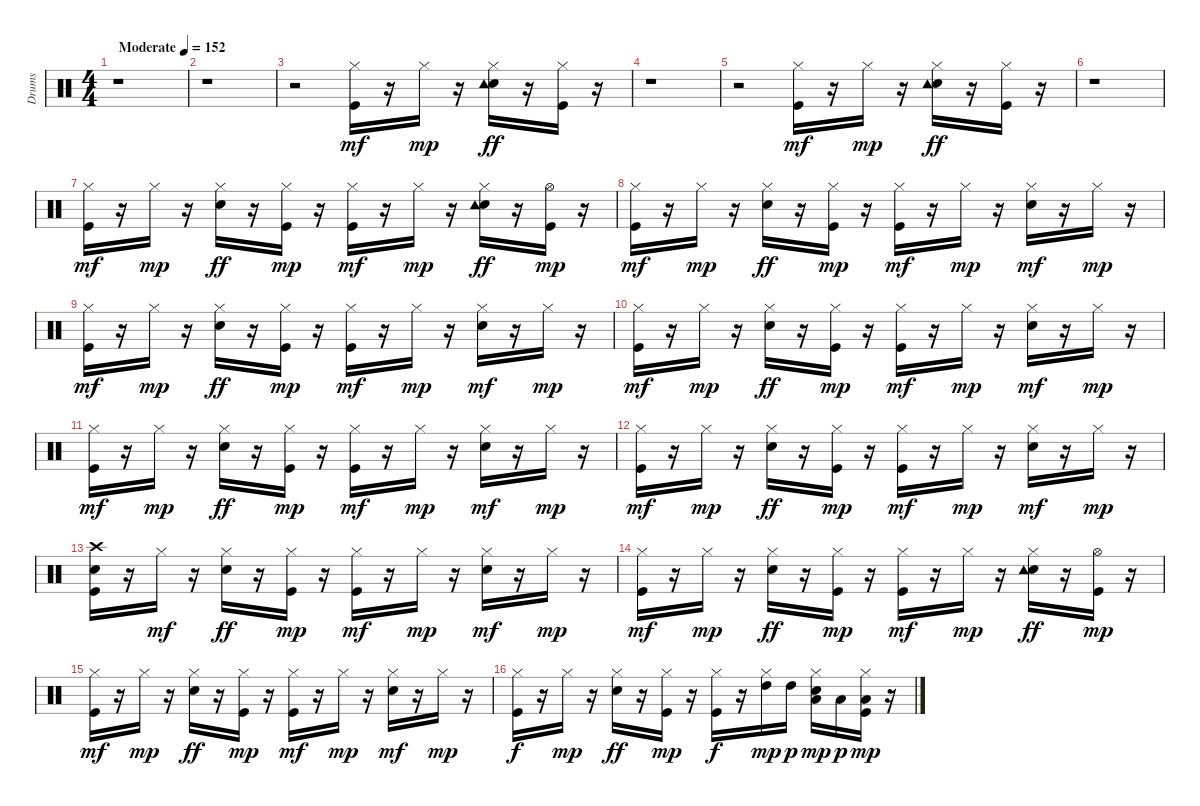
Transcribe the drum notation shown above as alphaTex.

\track ("Drums   " "Drums   ") {instrument percussion}
\staff {score}
\articulation defaults
\ts (4 4)
\tempo (152 "Moderate")
\clef neutral
\ks c
r.1{dy mf} |
r.1 |
r.2 ("Kick (hit)" "Hi-Hat (closed)").16 r.16 "Hi-Hat (closed)".16{dy mp} r.16 ("Snare (hit) 2" "Hi-Hat (closed)" "Tambourine (hit)").16{dy ff} r.16 ("Kick (hit)" "Hi-Hat (closed)").16 r.16 |
r.1 |
r.2 ("Kick (hit)" "Hi-Hat (closed)").16{dy mf} r.16 "Hi-Hat (closed)".16{dy mp} r.16 ("Snare (hit) 2" "Hi-Hat (closed)" "Tambourine (hit)").16{dy ff} r.16 ("Kick (hit)" "Hi-Hat (closed)").16 r.16 |
r.1 |
("Kick (hit)" "Hi-Hat (closed)").16{dy mf} r.16 "Hi-Hat (closed)".16{dy mp} r.16 ("Snare (hit) 2" "Hi-Hat (closed)").16{dy ff} r.16 ("Kick (hit)" "Hi-Hat (closed)").16{dy mp} r.16 ("Kick (hit)" "Hi-Hat (closed)").16{dy mf} r.16 "Hi-Hat (closed)".16{dy mp} r.16 ("Snare (hit) 2" "Hi-Hat (closed)" "Tambourine (hit)").16{dy ff} r.16 ("Kick (hit)" "Hi-Hat (open)").16{dy mp} r.16 |
("Kick (hit)" "Hi-Hat (closed)").16{dy mf} r.16 "Hi-Hat (closed)".16{dy mp} r.16 ("Snare (hit) 2" "Hi-Hat (closed)").16{dy ff} r.16 ("Kick (hit)" "Hi-Hat (closed)").16{dy mp} r.16 ("Kick (hit)" "Hi-Hat (closed)").16{dy mf} r.16 "Hi-Hat (closed)".16{dy mp} r.16 ("Snare (hit) 2" "Hi-Hat (closed)").16{dy mf} r.16 "Hi-Hat (closed)".16{dy mp} r.16 |
("Kick (hit)" "Hi-Hat (closed)").16{dy mf} r.16 "Hi-Hat (closed)".16{dy mp} r.16 ("Snare (hit) 2" "Hi-Hat (closed)").16{dy ff} r.16 ("Kick (hit)" "Hi-Hat (closed)").16{dy mp} r.16 ("Kick (hit)" "Hi-Hat (closed)").16{dy mf} r.16 "Hi-Hat (closed)".16{dy mp} r.16 ("Snare (hit) 2" "Hi-Hat (closed)").16{dy mf} r.16 "Hi-Hat (closed)".16{dy mp} r.16 |
("Kick (hit)" "Hi-Hat (closed)").16{dy mf} r.16 "Hi-Hat (closed)".16{dy mp} r.16 ("Snare (hit) 2" "Hi-Hat (closed)").16{dy ff} r.16 ("Kick (hit)" "Hi-Hat (closed)").16{dy mp} r.16 ("Kick (hit)" "Hi-Hat (closed)").16{dy mf} r.16 "Hi-Hat (closed)".16{dy mp} r.16 ("Snare (hit) 2" "Hi-Hat (closed)").16{dy mf} r.16 "Hi-Hat (closed)".16{dy mp} r.16 |
("Kick (hit)" "Hi-Hat (closed)").16{dy mf} r.16 "Hi-Hat (closed)".16{dy mp} r.16 ("Snare (hit) 2" "Hi-Hat (closed)").16{dy ff} r.16 ("Kick (hit)" "Hi-Hat (closed)").16{dy mp} r.16 ("Kick (hit)" "Hi-Hat (closed)").16{dy mf} r.16 "Hi-Hat (closed)".16{dy mp} r.16 ("Snare (hit) 2" "Hi-Hat (closed)").16{dy mf} r.16 "Hi-Hat (closed)".16{dy mp} r.16 |
("Kick (hit)" "Hi-Hat (closed)").16{dy mf} r.16 "Hi-Hat (closed)".16{dy mp} r.16 ("Snare (hit) 2" "Hi-Hat (closed)").16{dy ff} r.16 ("Kick (hit)" "Hi-Hat (closed)").16{dy mp} r.16 ("Kick (hit)" "Hi-Hat (closed)").16{dy mf} r.16 "Hi-Hat (closed)".16{dy mp} r.16 ("Snare (hit) 2" "Hi-Hat (closed)").16{dy mf} r.16 "Hi-Hat (closed)".16{dy mp} r.16 |
("Kick (hit)" "Snare (hit) 2" "Crash high (hit)").16 r.16 "Hi-Hat (closed)".16{dy mf} r.16 ("Snare (hit) 2" "Hi-Hat (closed)").16{dy ff} r.16 ("Kick (hit)" "Hi-Hat (closed)").16{dy mp} r.16 ("Kick (hit)" "Hi-Hat (closed)").16{dy mf} r.16 "Hi-Hat (closed)".16{dy mp} r.16 ("Snare (hit) 2" "Hi-Hat (closed)").16{dy mf} r.16 "Hi-Hat (closed)".16{dy mp} r.16 |
("Kick (hit)" "Hi-Hat (closed)").16{dy mf} r.16 "Hi-Hat (closed)".16{dy mp} r.16 ("Snare (hit) 2" "Hi-Hat (closed)").16{dy ff} r.16 ("Kick (hit)" "Hi-Hat (closed)").16{dy mp} r.16 ("Kick (hit)" "Hi-Hat (closed)").16{dy mf} r.16 "Hi-Hat (closed)".16{dy mp} r.16 ("Snare (hit) 2" "Hi-Hat (closed)" "Tambourine (hit)").16{dy ff} r.16 ("Kick (hit)" "Hi-Hat (open)").16{dy mp} r.16 |
("Kick (hit)" "Hi-Hat (closed)").16{dy mf} r.16 "Hi-Hat (closed)".16{dy mp} r.16 ("Snare (hit) 2" "Hi-Hat (closed)").16{dy ff} r.16 ("Kick (hit)" "Hi-Hat (closed)").16{dy mp} r.16 ("Kick (hit)" "Hi-Hat (closed)").16{dy mf} r.16 "Hi-Hat (closed)".16{dy mp} r.16 ("Snare (hit) 2" "Hi-Hat (closed)").16{dy mf} r.16 "Hi-Hat (closed)".16{dy mp} r.16 |
("Kick (hit)" "Hi-Hat (closed)").16{dy f} r.16 "Hi-Hat (closed)".16{dy mp} r.16 ("Snare (hit) 2" "Hi-Hat (closed)").16{dy ff} r.16 ("Kick (hit)" "Hi-Hat (closed)").16{dy mp} r.16 ("Kick (hit)" "Hi-Hat (closed)").16{dy f} r.16 ("Hi-Hat (closed)" "High Tom (hit)").16{dy mp} "High Tom (hit)".16{dy p} ("Snare (hit) 2" "Hi-Hat (closed)" "Low Tom (hit)").16{dy mp} "Low Tom (hit)".16{dy p} ("Kick (hit)" "Hi-Hat (closed)" "Low Floor Tom (hit)").16{dy mp} r.16
